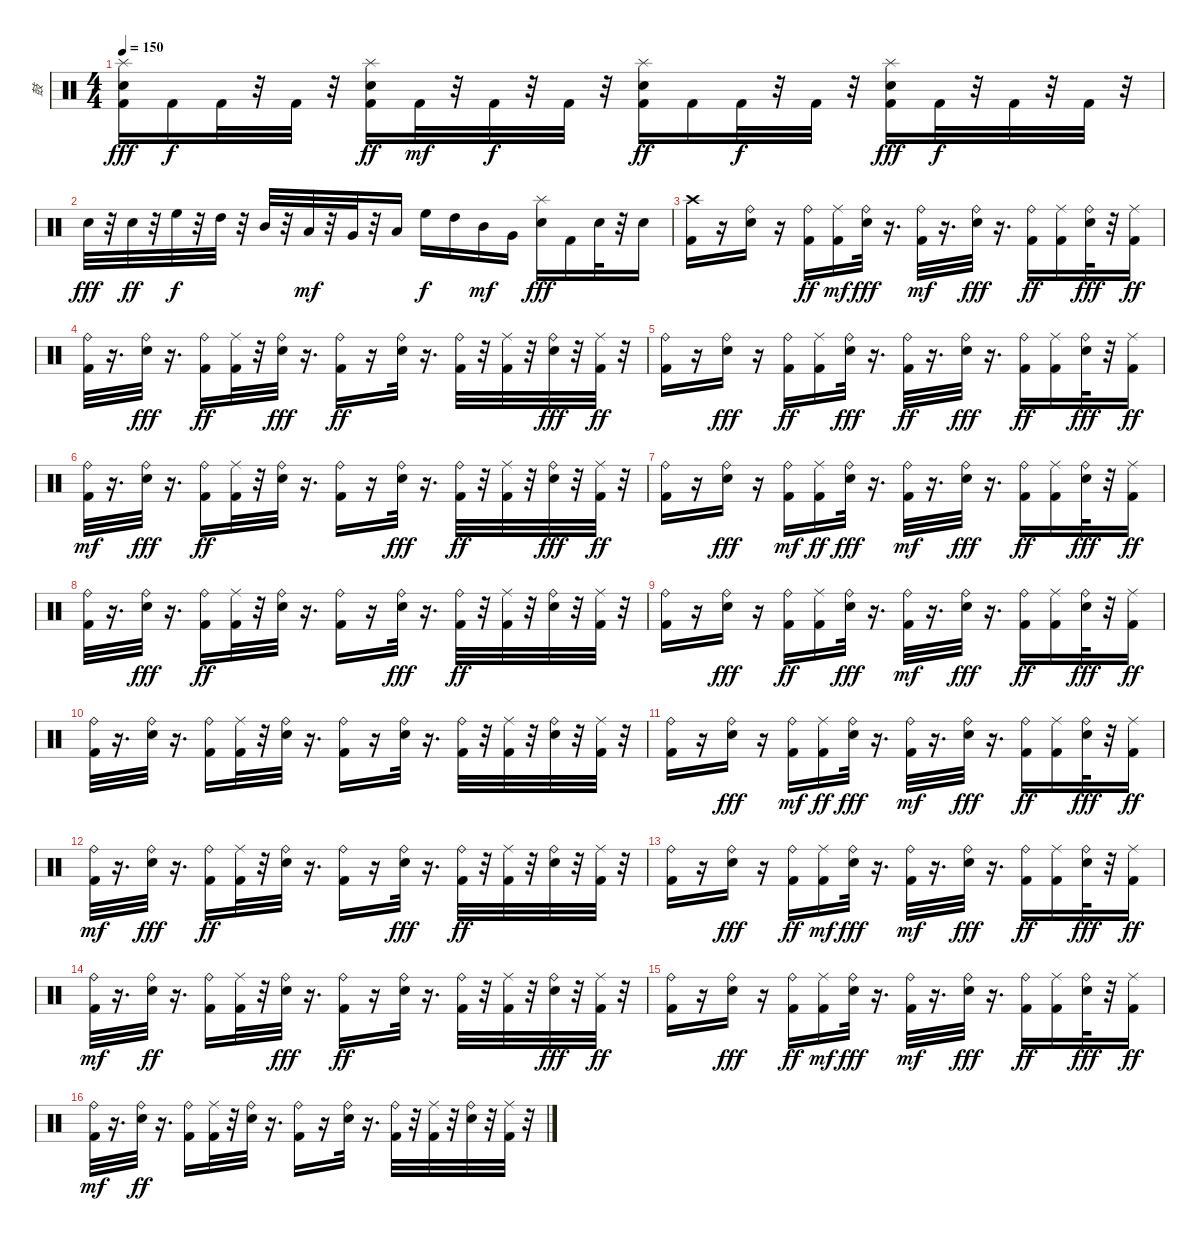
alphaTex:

\track ("鼓" "鼓") {instrument percussion}
\staff {score}
\articulation defaults
\ts (4 4)
\tempo 150
\clef neutral
\ks c
("Kick (hit) 2" "Electric Snare (hit)" "Splash (hit)").16{dy fff} "Kick (hit) 2".16{dy f} "Kick (hit) 2".32 r.32 "Kick (hit) 2".32 r.32 ("Splash (hit)" "Electric Snare (hit)" "Kick (hit) 2").16{dy ff} "Kick (hit) 2".32{dy mf} r.32 "Kick (hit) 2".32{dy f} r.32 "Kick (hit) 2".32 r.32 ("Splash (hit)" "Electric Snare (hit)" "Kick (hit) 2").16{dy ff} "Kick (hit) 2".16 "Kick (hit) 2".32{dy f} r.32 "Kick (hit) 2".32 r.32 ("Kick (hit) 2" "Splash (hit)" "Electric Snare (hit)").16{dy fff} "Kick (hit) 2".32{dy f} r.32 "Kick (hit) 2".32 r.32 "Kick (hit) 2".32 r.32 |
"Electric Snare (hit)".32{dy fff} r.32 "Electric Snare (hit)".32{dy ff} r.32 "High Floor Tom (hit)".32{dy f} r.32 "High Tom (hit)".32 r.32 "Mid Tom (hit)".32 r.32 "Low Tom (hit)".32{dy mf} r.32 "Very Low Tom (hit)".32 r.32 "Low Floor Tom (hit)".16 "High Floor Tom (hit)".16{dy f} "High Tom (hit)".16 "Mid Tom (hit)".16{dy mf} "Very Low Tom (hit)".16 ("Splash (hit)" "Electric Snare (hit)").16{dy fff} "Kick (hit) 2".16 "Electric Snare (hit)".32 r.32 "Electric Snare (hit)".16 |
("Kick (hit) 2" "Crash high (hit)").16 r.16 ("Electric Snare (hit)" "Ride (bell)").16 r.16 ("Ride (bell)" "Kick (hit) 2").16{dy ff} ("Kick (hit) 2" "Ride (middle)").16{dy mf} ("Ride (bell)" "Electric Snare (hit)").32{dy fff} r.16{d} ("Kick (hit) 2" "Ride (bell)").32{dy mf} r.16{d} ("Electric Snare (hit)" "Ride (bell)").32{dy fff} r.16{d} ("Kick (hit) 2" "Ride (bell)").16{dy ff} ("Kick (hit) 2" "Ride (middle)").16 ("Electric Snare (hit)" "Ride (bell)").32{dy fff} r.32 ("Ride (middle)" "Kick (hit) 2").16{dy ff} |
("Ride (bell)" "Kick (hit) 2").32 r.16{d} ("Ride (bell)" "Electric Snare (hit)").32{dy fff} r.16{d} ("Ride (bell)" "Kick (hit) 2").16{dy ff} ("Kick (hit) 2" "Ride (middle)").32 r.32 ("Ride (bell)" "Electric Snare (hit)").32{dy fff} r.16{d} ("Kick (hit) 2" "Ride (bell)").16{dy ff} r.16 ("Electric Snare (hit)" "Ride (bell)").32 r.16{d} ("Ride (bell)" "Kick (hit) 2").32 r.32 ("Kick (hit) 2" "Ride (middle)").32 r.32 ("Ride (bell)" "Electric Snare (hit)").32{dy fff} r.32 ("Ride (middle)" "Kick (hit) 2").32{dy ff} r.32 |
("Ride (bell)" "Kick (hit) 2").16 r.16 ("Electric Snare (hit)" "Ride (bell)").16{dy fff} r.16 ("Ride (bell)" "Kick (hit) 2").16{dy ff} ("Ride (middle)" "Kick (hit) 2").16 ("Electric Snare (hit)" "Ride (bell)").32{dy fff} r.16{d} ("Ride (bell)" "Kick (hit) 2").32{dy ff} r.16{d} ("Ride (bell)" "Electric Snare (hit)").32{dy fff} r.16{d} ("Ride (bell)" "Kick (hit) 2").16{dy ff} ("Kick (hit) 2" "Ride (middle)").16 ("Ride (bell)" "Electric Snare (hit)").32{dy fff} r.32 ("Ride (middle)" "Kick (hit) 2").16{dy ff} |
("Kick (hit) 2" "Ride (bell)").32{dy mf} r.16{d} ("Ride (bell)" "Electric Snare (hit)").32{dy fff} r.16{d} ("Ride (bell)" "Kick (hit) 2").16{dy ff} ("Kick (hit) 2" "Ride (middle)").32 r.32 ("Electric Snare (hit)" "Ride (bell)").32 r.16{d} ("Kick (hit) 2" "Ride (bell)").16 r.16 ("Ride (bell)" "Electric Snare (hit)").32{dy fff} r.16{d} ("Kick (hit) 2" "Ride (bell)").32{dy ff} r.32 ("Kick (hit) 2" "Ride (middle)").32 r.32 ("Ride (bell)" "Electric Snare (hit)").32{dy fff} r.32 ("Kick (hit) 2" "Ride (middle)").32{dy ff} r.32 |
("Ride (bell)" "Kick (hit) 2").16 r.16 ("Electric Snare (hit)" "Ride (bell)").16{dy fff} r.16 ("Kick (hit) 2" "Ride (bell)").16{dy mf} ("Ride (middle)" "Kick (hit) 2").16{dy ff} ("Electric Snare (hit)" "Ride (bell)").32{dy fff} r.16{d} ("Kick (hit) 2" "Ride (bell)").32{dy mf} r.16{d} ("Ride (bell)" "Electric Snare (hit)").32{dy fff} r.16{d} ("Kick (hit) 2" "Ride (bell)").16{dy ff} ("Ride (middle)" "Kick (hit) 2").16 ("Electric Snare (hit)" "Ride (bell)").32{dy fff} r.32 ("Kick (hit) 2" "Ride (middle)").16{dy ff} |
("Ride (bell)" "Kick (hit) 2").32 r.16{d} ("Ride (bell)" "Electric Snare (hit)").32{dy fff} r.16{d} ("Kick (hit) 2" "Ride (bell)").16{dy ff} ("Kick (hit) 2" "Ride (middle)").32 r.32 ("Electric Snare (hit)" "Ride (bell)").32 r.16{d} ("Ride (bell)" "Kick (hit) 2").16 r.16 ("Ride (bell)" "Electric Snare (hit)").32{dy fff} r.16{d} ("Ride (bell)" "Kick (hit) 2").32{dy ff} r.32 ("Ride (middle)" "Kick (hit) 2").32 r.32 ("Electric Snare (hit)" "Ride (bell)").32 r.32 ("Ride (middle)" "Kick (hit) 2").32 r.32 |
("Ride (bell)" "Kick (hit) 2").16 r.16 ("Electric Snare (hit)" "Ride (bell)").16{dy fff} r.16 ("Ride (bell)" "Kick (hit) 2").16{dy ff} ("Ride (middle)" "Kick (hit) 2").16 ("Electric Snare (hit)" "Ride (bell)").32{dy fff} r.16{d} ("Kick (hit) 2" "Ride (bell)").32{dy mf} r.16{d} ("Electric Snare (hit)" "Ride (bell)").32{dy fff} r.16{d} ("Ride (bell)" "Kick (hit) 2").16{dy ff} ("Kick (hit) 2" "Ride (middle)").16 ("Electric Snare (hit)" "Ride (bell)").32{dy fff} r.32 ("Kick (hit) 2" "Ride (middle)").16{dy ff} |
("Ride (bell)" "Kick (hit) 2").32 r.16{d} ("Electric Snare (hit)" "Ride (bell)").32 r.16{d} ("Kick (hit) 2" "Ride (bell)").16 ("Ride (middle)" "Kick (hit) 2").32 r.32 ("Electric Snare (hit)" "Ride (bell)").32 r.16{d} ("Ride (bell)" "Kick (hit) 2").16 r.16 ("Electric Snare (hit)" "Ride (bell)").32 r.16{d} ("Ride (bell)" "Kick (hit) 2").32 r.32 ("Kick (hit) 2" "Ride (middle)").32 r.32 ("Electric Snare (hit)" "Ride (bell)").32 r.32 ("Ride (middle)" "Kick (hit) 2").32 r.32 |
("Kick (hit) 2" "Ride (bell)").16 r.16 ("Ride (bell)" "Electric Snare (hit)").16{dy fff} r.16 ("Kick (hit) 2" "Ride (bell)").16{dy mf} ("Ride (middle)" "Kick (hit) 2").16{dy ff} ("Ride (bell)" "Electric Snare (hit)").32{dy fff} r.16{d} ("Kick (hit) 2" "Ride (bell)").32{dy mf} r.16{d} ("Ride (bell)" "Electric Snare (hit)").32{dy fff} r.16{d} ("Kick (hit) 2" "Ride (bell)").16{dy ff} ("Ride (middle)" "Kick (hit) 2").16 ("Electric Snare (hit)" "Ride (bell)").32{dy fff} r.32 ("Ride (middle)" "Kick (hit) 2").16{dy ff} |
("Kick (hit) 2" "Ride (bell)").32{dy mf} r.16{d} ("Ride (bell)" "Electric Snare (hit)").32{dy fff} r.16{d} ("Kick (hit) 2" "Ride (bell)").16{dy ff} ("Ride (middle)" "Kick (hit) 2").32 r.32 ("Electric Snare (hit)" "Ride (bell)").32 r.16{d} ("Ride (bell)" "Kick (hit) 2").16 r.16 ("Ride (bell)" "Electric Snare (hit)").32{dy fff} r.16{d} ("Kick (hit) 2" "Ride (bell)").32{dy ff} r.32 ("Ride (middle)" "Kick (hit) 2").32 r.32 ("Electric Snare (hit)" "Ride (bell)").32 r.32 ("Ride (middle)" "Kick (hit) 2").32 r.32 |
("Ride (bell)" "Kick (hit) 2").16 r.16 ("Ride (bell)" "Electric Snare (hit)").16{dy fff} r.16 ("Ride (bell)" "Kick (hit) 2").16{dy ff} ("Kick (hit) 2" "Ride (middle)").16{dy mf} ("Ride (bell)" "Electric Snare (hit)").32{dy fff} r.16{d} ("Kick (hit) 2" "Ride (bell)").32{dy mf} r.16{d} ("Ride (bell)" "Electric Snare (hit)").32{dy fff} r.16{d} ("Kick (hit) 2" "Ride (bell)").16{dy ff} ("Ride (middle)" "Kick (hit) 2").16 ("Ride (bell)" "Electric Snare (hit)").32{dy fff} r.32 ("Kick (hit) 2" "Ride (middle)").16{dy ff} |
("Kick (hit) 2" "Ride (bell)").32{dy mf} r.16{d} ("Electric Snare (hit)" "Ride (bell)").32{dy ff} r.16{d} ("Ride (bell)" "Kick (hit) 2").16 ("Kick (hit) 2" "Ride (middle)").32 r.32 ("Ride (bell)" "Electric Snare (hit)").32{dy fff} r.16{d} ("Kick (hit) 2" "Ride (bell)").16{dy ff} r.16 ("Electric Snare (hit)" "Ride (bell)").32 r.16{d} ("Ride (bell)" "Kick (hit) 2").32 r.32 ("Kick (hit) 2" "Ride (middle)").32 r.32 ("Ride (bell)" "Electric Snare (hit)").32{dy fff} r.32 ("Kick (hit) 2" "Ride (middle)").32{dy ff} r.32 |
("Ride (bell)" "Kick (hit) 2").16 r.16 ("Electric Snare (hit)" "Ride (bell)").16{dy fff} r.16 ("Ride (bell)" "Kick (hit) 2").16{dy ff} ("Kick (hit) 2" "Ride (middle)").16{dy mf} ("Electric Snare (hit)" "Ride (bell)").32{dy fff} r.16{d} ("Kick (hit) 2" "Ride (bell)").32{dy mf} r.16{d} ("Electric Snare (hit)" "Ride (bell)").32{dy fff} r.16{d} ("Ride (bell)" "Kick (hit) 2").16{dy ff} ("Kick (hit) 2" "Ride (middle)").16 ("Ride (bell)" "Electric Snare (hit)").32{dy fff} r.32 ("Ride (middle)" "Kick (hit) 2").16{dy ff} |
("Kick (hit) 2" "Ride (bell)").32{dy mf} r.16{d} ("Electric Snare (hit)" "Ride (bell)").32{dy ff} r.16{d} ("Ride (bell)" "Kick (hit) 2").16 ("Ride (middle)" "Kick (hit) 2").32 r.32 ("Electric Snare (hit)" "Ride (bell)").32 r.16{d} ("Kick (hit) 2" "Ride (bell)").16 r.16 ("Electric Snare (hit)" "Ride (bell)").32 r.16{d} ("Kick (hit) 2" "Ride (bell)").32 r.32 ("Kick (hit) 2" "Ride (middle)").32 r.32 ("Electric Snare (hit)" "Ride (bell)").32 r.32 ("Ride (middle)" "Kick (hit) 2").32 r.32
